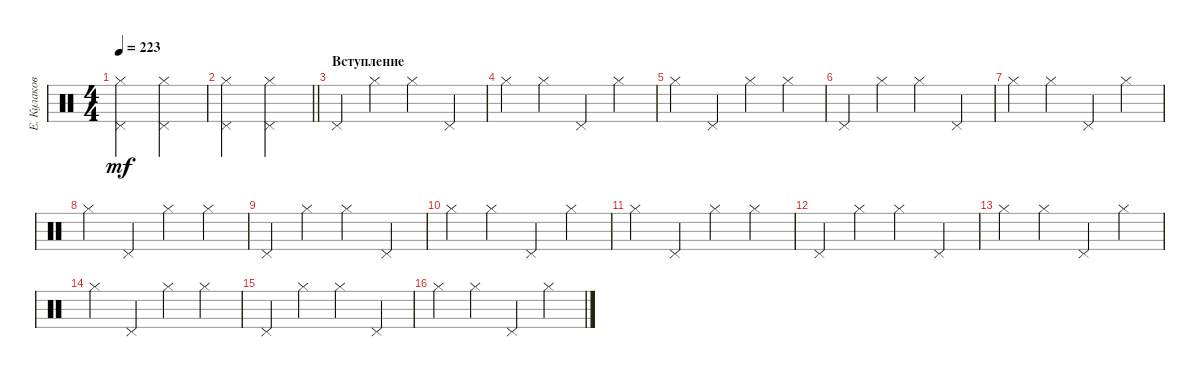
\track ("Е. Кулаков" "Е. Кулаков") {instrument percussion}
\staff {score}
\articulation defaults
\ts (4 4)
\tempo 223
\clef neutral
\ks c
("Pedal Hi-Hat (hit)" "Hi-Hat (closed)").2{dy mf} ("Pedal Hi-Hat (hit)" "Hi-Hat (closed)").2 |
\barLineRight lightlight
("Pedal Hi-Hat (hit)" "Hi-Hat (closed)").2 ("Pedal Hi-Hat (hit)" "Hi-Hat (closed)").2 |
\section ("" "Вступление")
"Pedal Hi-Hat (hit)".4 "Hi-Hat (closed)".4 "Hi-Hat (closed)".4 "Pedal Hi-Hat (hit)".4 |
"Hi-Hat (closed)".4 "Hi-Hat (closed)".4 "Pedal Hi-Hat (hit)".4 "Hi-Hat (closed)".4 |
"Hi-Hat (closed)".4 "Pedal Hi-Hat (hit)".4 "Hi-Hat (closed)".4 "Hi-Hat (closed)".4 |
"Pedal Hi-Hat (hit)".4 "Hi-Hat (closed)".4 "Hi-Hat (closed)".4 "Pedal Hi-Hat (hit)".4 |
"Hi-Hat (closed)".4 "Hi-Hat (closed)".4 "Pedal Hi-Hat (hit)".4 "Hi-Hat (closed)".4 |
"Hi-Hat (closed)".4 "Pedal Hi-Hat (hit)".4 "Hi-Hat (closed)".4 "Hi-Hat (closed)".4 |
"Pedal Hi-Hat (hit)".4 "Hi-Hat (closed)".4 "Hi-Hat (closed)".4 "Pedal Hi-Hat (hit)".4 |
"Hi-Hat (closed)".4 "Hi-Hat (closed)".4 "Pedal Hi-Hat (hit)".4 "Hi-Hat (closed)".4 |
"Hi-Hat (closed)".4 "Pedal Hi-Hat (hit)".4 "Hi-Hat (closed)".4 "Hi-Hat (closed)".4 |
"Pedal Hi-Hat (hit)".4 "Hi-Hat (closed)".4 "Hi-Hat (closed)".4 "Pedal Hi-Hat (hit)".4 |
"Hi-Hat (closed)".4 "Hi-Hat (closed)".4 "Pedal Hi-Hat (hit)".4 "Hi-Hat (closed)".4 |
"Hi-Hat (closed)".4 "Pedal Hi-Hat (hit)".4 "Hi-Hat (closed)".4 "Hi-Hat (closed)".4 |
"Pedal Hi-Hat (hit)".4 "Hi-Hat (closed)".4 "Hi-Hat (closed)".4 "Pedal Hi-Hat (hit)".4 |
"Hi-Hat (closed)".4 "Hi-Hat (closed)".4 "Pedal Hi-Hat (hit)".4 "Hi-Hat (closed)".4
